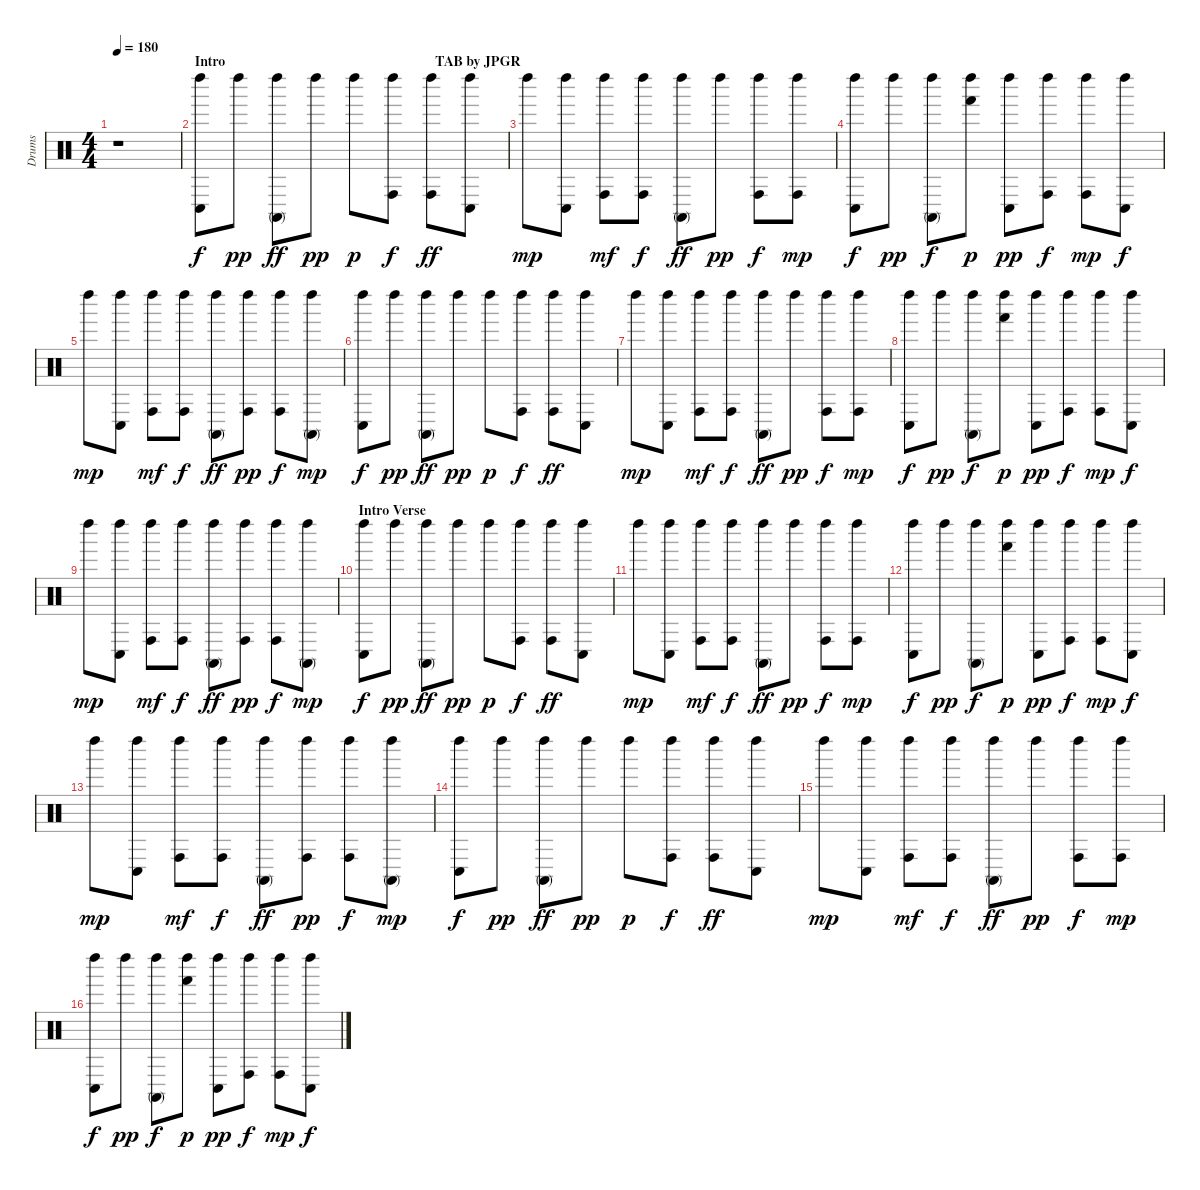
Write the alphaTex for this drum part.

\track ("Drums" "Drums") {instrument percussion}
\staff {score}
\articulation defaults
\ts (4 4)
\tempo 180
\clef neutral
\ks c
r.1{dy f} |
\section ("" "Intro                                                            TAB by JPGR")
("Left Maraca (hit)" "Conga low (hit)").8 "Left Maraca (hit)".8{dy pp} ("Left Maraca (hit)" "Conga high (mute)").8{dy ff} "Left Maraca (hit)".8{dy pp} "Left Maraca (hit)".8{dy p} ("Left Maraca (hit)" "Conga high (hit)").8{dy f} ("Left Maraca (hit)" "Conga high (hit)").8{dy ff} ("Left Maraca (hit)" "Conga low (hit)").8 |
"Left Maraca (hit)".8{dy mp} ("Left Maraca (hit)" "Conga low (hit)").8 ("Left Maraca (hit)" "Conga high (hit)").8{dy mf} ("Left Maraca (hit)" "Conga high (hit)").8{dy f} ("Left Maraca (hit)" "Conga high (mute)").8{dy ff} "Left Maraca (hit)".8{dy pp} ("Left Maraca (hit)" "Conga high (hit)").8{dy f} ("Left Maraca (hit)" "Conga high (hit)").8{dy mp} |
("Left Maraca (hit)" "Conga low (hit)").8{dy f} "Left Maraca (hit)".8{dy pp} ("Left Maraca (hit)" "Conga high (mute)").8{dy f} ("Left Maraca (hit)" "Hand (hit)").8{dy p} ("Left Maraca (hit)" "Conga low (hit)").8{dy pp} ("Left Maraca (hit)" "Conga high (hit)").8{dy f} ("Left Maraca (hit)" "Conga high (hit)").8{dy mp} ("Left Maraca (hit)" "Conga low (hit)").8{dy f} |
"Left Maraca (hit)".8{dy mp} ("Left Maraca (hit)" "Conga low (hit)").8 ("Left Maraca (hit)" "Conga high (hit)").8{dy mf} ("Left Maraca (hit)" "Conga high (hit)").8{dy f} ("Left Maraca (hit)" "Conga high (mute)").8{dy ff} ("Left Maraca (hit)" "Conga high (hit)").8{dy pp} ("Left Maraca (hit)" "Conga high (hit)").8{dy f} ("Left Maraca (hit)" "Conga high (mute)").8{dy mp} |
("Left Maraca (hit)" "Conga low (hit)").8{dy f} "Left Maraca (hit)".8{dy pp} ("Left Maraca (hit)" "Conga high (mute)").8{dy ff} "Left Maraca (hit)".8{dy pp} "Left Maraca (hit)".8{dy p} ("Left Maraca (hit)" "Conga high (hit)").8{dy f} ("Left Maraca (hit)" "Conga high (hit)").8{dy ff} ("Left Maraca (hit)" "Conga low (hit)").8 |
"Left Maraca (hit)".8{dy mp} ("Left Maraca (hit)" "Conga low (hit)").8 ("Left Maraca (hit)" "Conga high (hit)").8{dy mf} ("Left Maraca (hit)" "Conga high (hit)").8{dy f} ("Left Maraca (hit)" "Conga high (mute)").8{dy ff} "Left Maraca (hit)".8{dy pp} ("Left Maraca (hit)" "Conga high (hit)").8{dy f} ("Left Maraca (hit)" "Conga high (hit)").8{dy mp} |
("Left Maraca (hit)" "Conga low (hit)").8{dy f} "Left Maraca (hit)".8{dy pp} ("Left Maraca (hit)" "Conga high (mute)").8{dy f} ("Left Maraca (hit)" "Hand (hit)").8{dy p} ("Left Maraca (hit)" "Conga low (hit)").8{dy pp} ("Left Maraca (hit)" "Conga high (hit)").8{dy f} ("Left Maraca (hit)" "Conga high (hit)").8{dy mp} ("Left Maraca (hit)" "Conga low (hit)").8{dy f} |
"Left Maraca (hit)".8{dy mp} ("Left Maraca (hit)" "Conga low (hit)").8 ("Left Maraca (hit)" "Conga high (hit)").8{dy mf} ("Left Maraca (hit)" "Conga high (hit)").8{dy f} ("Left Maraca (hit)" "Conga high (mute)").8{dy ff} ("Left Maraca (hit)" "Conga high (hit)").8{dy pp} ("Left Maraca (hit)" "Conga high (hit)").8{dy f} ("Left Maraca (hit)" "Conga high (mute)").8{dy mp} |
\section ("" "Intro Verse")
("Left Maraca (hit)" "Conga low (hit)").8{dy f} "Left Maraca (hit)".8{dy pp} ("Left Maraca (hit)" "Conga high (mute)").8{dy ff} "Left Maraca (hit)".8{dy pp} "Left Maraca (hit)".8{dy p} ("Left Maraca (hit)" "Conga high (hit)").8{dy f} ("Left Maraca (hit)" "Conga high (hit)").8{dy ff} ("Left Maraca (hit)" "Conga low (hit)").8 |
"Left Maraca (hit)".8{dy mp} ("Left Maraca (hit)" "Conga low (hit)").8 ("Left Maraca (hit)" "Conga high (hit)").8{dy mf} ("Left Maraca (hit)" "Conga high (hit)").8{dy f} ("Left Maraca (hit)" "Conga high (mute)").8{dy ff} "Left Maraca (hit)".8{dy pp} ("Left Maraca (hit)" "Conga high (hit)").8{dy f} ("Left Maraca (hit)" "Conga high (hit)").8{dy mp} |
("Left Maraca (hit)" "Conga low (hit)").8{dy f} "Left Maraca (hit)".8{dy pp} ("Left Maraca (hit)" "Conga high (mute)").8{dy f} ("Left Maraca (hit)" "Hand (hit)").8{dy p} ("Left Maraca (hit)" "Conga low (hit)").8{dy pp} ("Left Maraca (hit)" "Conga high (hit)").8{dy f} ("Left Maraca (hit)" "Conga high (hit)").8{dy mp} ("Left Maraca (hit)" "Conga low (hit)").8{dy f} |
"Left Maraca (hit)".8{dy mp} ("Left Maraca (hit)" "Conga low (hit)").8 ("Left Maraca (hit)" "Conga high (hit)").8{dy mf} ("Left Maraca (hit)" "Conga high (hit)").8{dy f} ("Left Maraca (hit)" "Conga high (mute)").8{dy ff} ("Left Maraca (hit)" "Conga high (hit)").8{dy pp} ("Left Maraca (hit)" "Conga high (hit)").8{dy f} ("Left Maraca (hit)" "Conga high (mute)").8{dy mp} |
("Left Maraca (hit)" "Conga low (hit)").8{dy f} "Left Maraca (hit)".8{dy pp} ("Left Maraca (hit)" "Conga high (mute)").8{dy ff} "Left Maraca (hit)".8{dy pp} "Left Maraca (hit)".8{dy p} ("Left Maraca (hit)" "Conga high (hit)").8{dy f} ("Left Maraca (hit)" "Conga high (hit)").8{dy ff} ("Left Maraca (hit)" "Conga low (hit)").8 |
"Left Maraca (hit)".8{dy mp} ("Left Maraca (hit)" "Conga low (hit)").8 ("Left Maraca (hit)" "Conga high (hit)").8{dy mf} ("Left Maraca (hit)" "Conga high (hit)").8{dy f} ("Left Maraca (hit)" "Conga high (mute)").8{dy ff} "Left Maraca (hit)".8{dy pp} ("Left Maraca (hit)" "Conga high (hit)").8{dy f} ("Left Maraca (hit)" "Conga high (hit)").8{dy mp} |
("Left Maraca (hit)" "Conga low (hit)").8{dy f} "Left Maraca (hit)".8{dy pp} ("Left Maraca (hit)" "Conga high (mute)").8{dy f} ("Left Maraca (hit)" "Hand (hit)").8{dy p} ("Left Maraca (hit)" "Conga low (hit)").8{dy pp} ("Left Maraca (hit)" "Conga high (hit)").8{dy f} ("Left Maraca (hit)" "Conga high (hit)").8{dy mp} ("Left Maraca (hit)" "Conga low (hit)").8{dy f}
